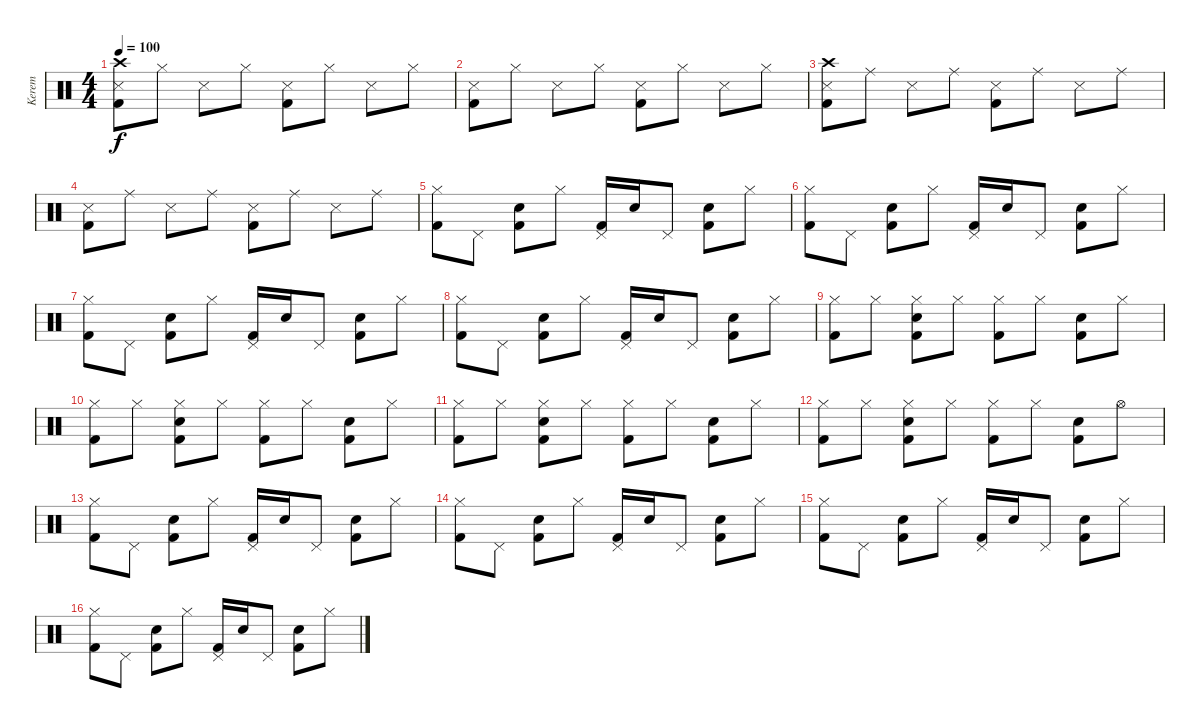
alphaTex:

\track ("Kerem" "Kerem") {instrument percussion}
\staff {score}
\articulation defaults
\ts (4 4)
\tempo 100
\clef neutral
\ks c
("Crash high (hit)" "Snare (side stick) 3" "Kick (hit) 2").8{dy f} "Hi-Hat (closed)".8 "Snare (side stick) 3".8 "Hi-Hat (closed)".8 ("Snare (side stick) 3" "Kick (hit) 2").8 "Hi-Hat (closed)".8 "Snare (side stick) 3".8 "Hi-Hat (closed)".8 |
("Snare (side stick) 3" "Kick (hit) 2").8 "Hi-Hat (closed)".8 "Snare (side stick) 3".8 "Hi-Hat (closed)".8 ("Snare (side stick) 3" "Kick (hit) 2").8 "Hi-Hat (closed)".8 "Snare (side stick) 3".8 "Hi-Hat (closed)".8 |
("Crash high (hit)" "Snare (side stick) 3" "Kick (hit) 2").8 "Ride (middle)".8 "Snare (side stick) 3".8 "Ride (middle)".8 ("Snare (side stick) 3" "Kick (hit) 2").8 "Ride (middle)".8 "Snare (side stick) 3".8 "Ride (middle)".8 |
("Snare (side stick) 3" "Kick (hit) 2").8 "Ride (middle)".8 "Snare (side stick) 3".8 "Ride (middle)".8 ("Snare (side stick) 3" "Kick (hit) 2").8 "Ride (middle)".8 "Snare (side stick) 3".8 "Ride (middle)".8 |
("Hi-Hat (closed)" "Kick (hit) 2").8 "Pedal Hi-Hat (hit)".8 ("Electric Snare (hit)" "Kick (hit) 2").8 "Hi-Hat (closed)".8 ("Pedal Hi-Hat (hit)" "Kick (hit) 2").16 "Electric Snare (hit)".16 "Pedal Hi-Hat (hit)".8 ("Electric Snare (hit)" "Kick (hit) 2").8 "Hi-Hat (closed)".8 |
("Hi-Hat (closed)" "Kick (hit) 2").8 "Pedal Hi-Hat (hit)".8 ("Electric Snare (hit)" "Kick (hit) 2").8 "Hi-Hat (closed)".8 ("Pedal Hi-Hat (hit)" "Kick (hit) 2").16 "Electric Snare (hit)".16 "Pedal Hi-Hat (hit)".8 ("Electric Snare (hit)" "Kick (hit) 2").8 "Hi-Hat (closed)".8 |
("Hi-Hat (closed)" "Kick (hit) 2").8 "Pedal Hi-Hat (hit)".8 ("Electric Snare (hit)" "Kick (hit) 2").8 "Hi-Hat (closed)".8 ("Pedal Hi-Hat (hit)" "Kick (hit) 2").16 "Electric Snare (hit)".16 "Pedal Hi-Hat (hit)".8 ("Electric Snare (hit)" "Kick (hit) 2").8 "Hi-Hat (closed)".8 |
("Hi-Hat (closed)" "Kick (hit) 2").8 "Pedal Hi-Hat (hit)".8 ("Electric Snare (hit)" "Kick (hit) 2").8 "Hi-Hat (closed)".8 ("Pedal Hi-Hat (hit)" "Kick (hit) 2").16 "Electric Snare (hit)".16 "Pedal Hi-Hat (hit)".8 ("Electric Snare (hit)" "Kick (hit) 2").8 "Hi-Hat (closed)".8 |
("Hi-Hat (closed)" "Kick (hit) 2").8 "Hi-Hat (closed)".8 ("Hi-Hat (closed)" "Electric Snare (hit)" "Kick (hit) 2").8 "Hi-Hat (closed)".8 ("Hi-Hat (closed)" "Kick (hit) 2").8 "Hi-Hat (closed)".8 ("Electric Snare (hit)" "Kick (hit) 2").8 "Hi-Hat (closed)".8 |
("Hi-Hat (closed)" "Kick (hit) 2").8 "Hi-Hat (closed)".8 ("Hi-Hat (closed)" "Electric Snare (hit)" "Kick (hit) 2").8 "Hi-Hat (closed)".8 ("Hi-Hat (closed)" "Kick (hit) 2").8 "Hi-Hat (closed)".8 ("Electric Snare (hit)" "Kick (hit) 2").8 "Hi-Hat (closed)".8 |
("Hi-Hat (closed)" "Kick (hit) 2").8 "Hi-Hat (closed)".8 ("Hi-Hat (closed)" "Electric Snare (hit)" "Kick (hit) 2").8 "Hi-Hat (closed)".8 ("Hi-Hat (closed)" "Kick (hit) 2").8 "Hi-Hat (closed)".8 ("Electric Snare (hit)" "Kick (hit) 2").8 "Hi-Hat (closed)".8 |
("Hi-Hat (closed)" "Kick (hit) 2").8 "Hi-Hat (closed)".8 ("Hi-Hat (closed)" "Electric Snare (hit)" "Kick (hit) 2").8 "Hi-Hat (closed)".8 ("Hi-Hat (closed)" "Kick (hit) 2").8 "Hi-Hat (closed)".8 ("Electric Snare (hit)" "Kick (hit) 2").8 "Hi-Hat (open)".8 |
("Hi-Hat (closed)" "Kick (hit) 2").8 "Pedal Hi-Hat (hit)".8 ("Electric Snare (hit)" "Kick (hit) 2").8 "Hi-Hat (closed)".8 ("Pedal Hi-Hat (hit)" "Kick (hit) 2").16 "Electric Snare (hit)".16 "Pedal Hi-Hat (hit)".8 ("Electric Snare (hit)" "Kick (hit) 2").8 "Hi-Hat (closed)".8 |
("Hi-Hat (closed)" "Kick (hit) 2").8 "Pedal Hi-Hat (hit)".8 ("Electric Snare (hit)" "Kick (hit) 2").8 "Hi-Hat (closed)".8 ("Pedal Hi-Hat (hit)" "Kick (hit) 2").16 "Electric Snare (hit)".16 "Pedal Hi-Hat (hit)".8 ("Electric Snare (hit)" "Kick (hit) 2").8 "Hi-Hat (closed)".8 |
("Hi-Hat (closed)" "Kick (hit) 2").8 "Pedal Hi-Hat (hit)".8 ("Electric Snare (hit)" "Kick (hit) 2").8 "Hi-Hat (closed)".8 ("Pedal Hi-Hat (hit)" "Kick (hit) 2").16 "Electric Snare (hit)".16 "Pedal Hi-Hat (hit)".8 ("Electric Snare (hit)" "Kick (hit) 2").8 "Hi-Hat (closed)".8 |
("Hi-Hat (closed)" "Kick (hit) 2").8 "Pedal Hi-Hat (hit)".8 ("Electric Snare (hit)" "Kick (hit) 2").8 "Hi-Hat (closed)".8 ("Pedal Hi-Hat (hit)" "Kick (hit) 2").16 "Electric Snare (hit)".16 "Pedal Hi-Hat (hit)".8 ("Electric Snare (hit)" "Kick (hit) 2").8 "Hi-Hat (closed)".8
